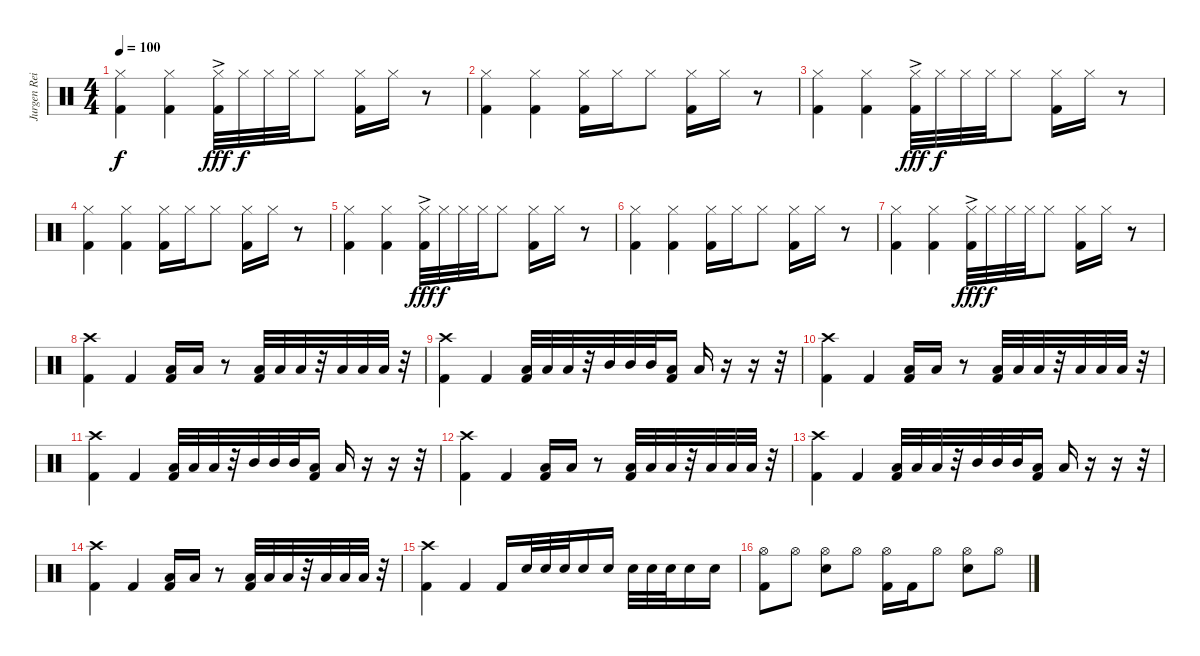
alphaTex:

\track ("Jurgen Reil" "Jurgen Rei") {instrument percussion}
\staff {score}
\articulation defaults
\ts (4 4)
\tempo 100
\clef neutral
\ks c
("Kick (hit) 2" "Hi-Hat (closed)").4{dy f} ("Kick (hit) 2" "Hi-Hat (closed)").4 ("Kick (hit) 2" "Hi-Hat (closed)"{ac}).32{dy fff} "Hi-Hat (closed)".32{dy f} "Hi-Hat (closed)".32 "Hi-Hat (closed)".32 "Hi-Hat (closed)".8 ("Kick (hit) 2" "Hi-Hat (closed)").16 "Hi-Hat (closed)".16 r.8 |
("Kick (hit) 2" "Hi-Hat (closed)").4 ("Kick (hit) 2" "Hi-Hat (closed)").4 ("Kick (hit) 2" "Hi-Hat (closed)").16 "Hi-Hat (closed)".16 "Hi-Hat (closed)".8 ("Kick (hit) 2" "Hi-Hat (closed)").16 "Hi-Hat (closed)".16 r.8 |
("Kick (hit) 2" "Hi-Hat (closed)").4 ("Kick (hit) 2" "Hi-Hat (closed)").4 ("Kick (hit) 2" "Hi-Hat (closed)"{ac}).32{dy fff} "Hi-Hat (closed)".32{dy f} "Hi-Hat (closed)".32 "Hi-Hat (closed)".32 "Hi-Hat (closed)".8 ("Kick (hit) 2" "Hi-Hat (closed)").16 "Hi-Hat (closed)".16 r.8 |
("Kick (hit) 2" "Hi-Hat (closed)").4 ("Kick (hit) 2" "Hi-Hat (closed)").4 ("Kick (hit) 2" "Hi-Hat (closed)").16 "Hi-Hat (closed)".16 "Hi-Hat (closed)".8 ("Kick (hit) 2" "Hi-Hat (closed)").16 "Hi-Hat (closed)".16 r.8 |
("Kick (hit) 2" "Hi-Hat (closed)").4 ("Kick (hit) 2" "Hi-Hat (closed)").4 ("Kick (hit) 2" "Hi-Hat (closed)"{ac}).32{dy fff} "Hi-Hat (closed)".32{dy f} "Hi-Hat (closed)".32 "Hi-Hat (closed)".32 "Hi-Hat (closed)".8 ("Kick (hit) 2" "Hi-Hat (closed)").16 "Hi-Hat (closed)".16 r.8 |
("Kick (hit) 2" "Hi-Hat (closed)").4 ("Kick (hit) 2" "Hi-Hat (closed)").4 ("Kick (hit) 2" "Hi-Hat (closed)").16 "Hi-Hat (closed)".16 "Hi-Hat (closed)".8 ("Kick (hit) 2" "Hi-Hat (closed)").16 "Hi-Hat (closed)".16 r.8 |
("Kick (hit) 2" "Hi-Hat (closed)").4 ("Kick (hit) 2" "Hi-Hat (closed)").4 ("Kick (hit) 2" "Hi-Hat (closed)"{ac}).32{dy fff} "Hi-Hat (closed)".32{dy f} "Hi-Hat (closed)".32 "Hi-Hat (closed)".32 "Hi-Hat (closed)".8 ("Kick (hit) 2" "Hi-Hat (closed)").16 "Hi-Hat (closed)".16 r.8 |
("Crash high (hit)" "Kick (hit) 2").4 "Kick (hit) 2".4 ("Low Tom (hit)" "Kick (hit) 2").16 "Low Tom (hit)".16 r.8 ("Low Tom (hit)" "Kick (hit) 2").32 "Low Tom (hit)".32 "Low Tom (hit)".32 r.32 "Low Tom (hit)".32 "Low Tom (hit)".32 "Low Tom (hit)".32 r.32 |
("Crash high (hit)" "Kick (hit) 2").4 "Kick (hit) 2".4 ("Low Tom (hit)" "Kick (hit) 2").32 "Low Tom (hit)".32 "Low Tom (hit)".32 r.32 "Mid Tom (hit)".32 "Mid Tom (hit)".32 "Mid Tom (hit)".32 ("Low Tom (hit)" "Kick (hit) 2").16 "Low Tom (hit)".16 r.16 r.16 r.32 |
("Crash high (hit)" "Kick (hit) 2").4 "Kick (hit) 2".4 ("Low Tom (hit)" "Kick (hit) 2").16 "Low Tom (hit)".16 r.8 ("Low Tom (hit)" "Kick (hit) 2").32 "Low Tom (hit)".32 "Low Tom (hit)".32 r.32 "Low Tom (hit)".32 "Low Tom (hit)".32 "Low Tom (hit)".32 r.32 |
("Crash high (hit)" "Kick (hit) 2").4 "Kick (hit) 2".4 ("Low Tom (hit)" "Kick (hit) 2").32 "Low Tom (hit)".32 "Low Tom (hit)".32 r.32 "Mid Tom (hit)".32 "Mid Tom (hit)".32 "Mid Tom (hit)".32 ("Low Tom (hit)" "Kick (hit) 2").16 "Low Tom (hit)".16 r.16 r.16 r.32 |
("Crash high (hit)" "Kick (hit) 2").4 "Kick (hit) 2".4 ("Low Tom (hit)" "Kick (hit) 2").16 "Low Tom (hit)".16 r.8 ("Low Tom (hit)" "Kick (hit) 2").32 "Low Tom (hit)".32 "Low Tom (hit)".32 r.32 "Low Tom (hit)".32 "Low Tom (hit)".32 "Low Tom (hit)".32 r.32 |
("Crash high (hit)" "Kick (hit) 2").4 "Kick (hit) 2".4 ("Low Tom (hit)" "Kick (hit) 2").32 "Low Tom (hit)".32 "Low Tom (hit)".32 r.32 "Mid Tom (hit)".32 "Mid Tom (hit)".32 "Mid Tom (hit)".32 ("Low Tom (hit)" "Kick (hit) 2").16 "Low Tom (hit)".16 r.16 r.16 r.32 |
("Crash high (hit)" "Kick (hit) 2").4 "Kick (hit) 2".4 ("Low Tom (hit)" "Kick (hit) 2").16 "Low Tom (hit)".16 r.8 ("Low Tom (hit)" "Kick (hit) 2").32 "Low Tom (hit)".32 "Low Tom (hit)".32 r.32 "Low Tom (hit)".32 "Low Tom (hit)".32 "Low Tom (hit)".32 r.32 |
("Crash high (hit)" "Kick (hit) 2").4 "Kick (hit) 2".4 "Kick (hit) 2".16 "Snare (hit) 2".32 "Snare (hit) 2".32 "Snare (hit) 2".32 "Snare (hit) 2".16 "Snare (hit) 2".16 "Snare (hit) 2".32 "Snare (hit) 2".32 "Snare (hit) 2".32 "Snare (hit) 2".16 "Snare (hit) 2".16 |
("Kick (hit) 2" "Hi-Hat (open)").8 "Hi-Hat (open)".8 ("Hi-Hat (open)" "Snare (hit) 2").8 "Hi-Hat (open)".8 ("Kick (hit) 2" "Hi-Hat (open)").16 "Kick (hit) 2".16 "Hi-Hat (open)".8 ("Snare (hit) 2" "Hi-Hat (open)").8 "Hi-Hat (open)".8
